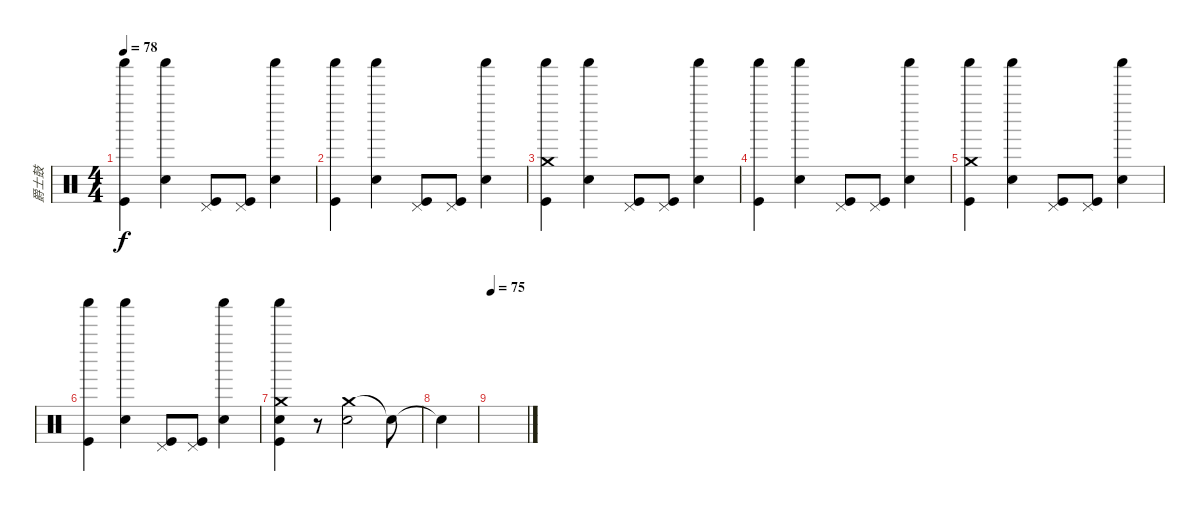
\track ("爵士鼓" "爵士鼓") {instrument percussion}
\staff {score}
\articulation defaults
\ts (4 4)
\tempo 78
\clef neutral
\ks c
("Shaker (hit)" "Kick (hit)").4{dy f} ("Shaker (hit)" "Snare (hit) 2").4 ("Pedal Hi-Hat (hit)" "Kick (hit)").8 ("Pedal Hi-Hat (hit)" "Kick (hit)").8 ("Shaker (hit)" "Snare (hit) 2").4 |
("Shaker (hit)" "Kick (hit)").4 ("Shaker (hit)" "Snare (hit) 2").4 ("Pedal Hi-Hat (hit)" "Kick (hit)").8 ("Pedal Hi-Hat (hit)" "Kick (hit)").8 ("Shaker (hit)" "Snare (hit) 2").4 |
("Crash medium (hit)" "Shaker (hit)" "Kick (hit)").4 ("Shaker (hit)" "Snare (hit) 2").4 ("Pedal Hi-Hat (hit)" "Kick (hit)").8 ("Pedal Hi-Hat (hit)" "Kick (hit)").8 ("Shaker (hit)" "Snare (hit) 2").4 |
("Shaker (hit)" "Kick (hit)").4 ("Shaker (hit)" "Snare (hit) 2").4 ("Pedal Hi-Hat (hit)" "Kick (hit)").8 ("Pedal Hi-Hat (hit)" "Kick (hit)").8 ("Shaker (hit)" "Snare (hit) 2").4 |
("Crash medium (hit)" "Shaker (hit)" "Kick (hit)").4 ("Shaker (hit)" "Snare (hit) 2").4 ("Pedal Hi-Hat (hit)" "Kick (hit)").8 ("Pedal Hi-Hat (hit)" "Kick (hit)").8 ("Shaker (hit)" "Snare (hit) 2").4 |
("Shaker (hit)" "Kick (hit)").4 ("Shaker (hit)" "Snare (hit) 2").4 ("Pedal Hi-Hat (hit)" "Kick (hit)").8 ("Pedal Hi-Hat (hit)" "Kick (hit)").8 ("Shaker (hit)" "Snare (hit) 2").4 |
("Snare (hit) 2" "Crash medium (hit)" "Shaker (hit)" "Kick (hit)").4 r.8 ("Crash medium (hit)" "Snare (hit) 2").2 "Snare (hit)"{t}.8 |
"Snare (hit)"{t}.4 |
\tempo 75
